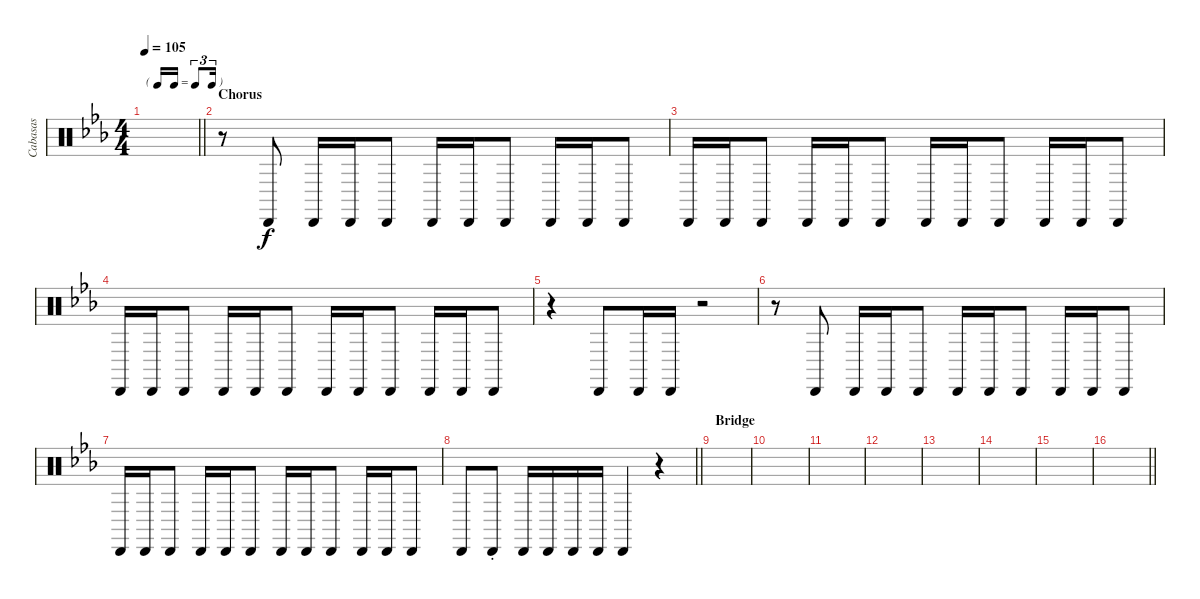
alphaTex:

\track ("Cabasas" "Cabasas") {instrument percussion}
\staff {score}
\articulation defaults
\ts (4 4)
\tf triplet16th
\tempo 105
\clef neutral
\barLineRight lightlight
\ks eb
|
\section ("" "Chorus")
r.8 "Cabasa (hit)".8 "Cabasa (hit)".16 "Cabasa (hit)".16 "Cabasa (hit)".8 "Cabasa (hit)".16 "Cabasa (hit)".16 "Cabasa (hit)".8 "Cabasa (hit)".16 "Cabasa (hit)".16 "Cabasa (hit)".8 |
"Cabasa (hit)".16 "Cabasa (hit)".16 "Cabasa (hit)".8 "Cabasa (hit)".16 "Cabasa (hit)".16 "Cabasa (hit)".8 "Cabasa (hit)".16 "Cabasa (hit)".16 "Cabasa (hit)".8 "Cabasa (hit)".16 "Cabasa (hit)".16 "Cabasa (hit)".8 |
"Cabasa (hit)".16 "Cabasa (hit)".16 "Cabasa (hit)".8 "Cabasa (hit)".16 "Cabasa (hit)".16 "Cabasa (hit)".8 "Cabasa (hit)".16 "Cabasa (hit)".16 "Cabasa (hit)".8 "Cabasa (hit)".16 "Cabasa (hit)".16 "Cabasa (hit)".8 |
r.4 "Cabasa (hit)".8 "Cabasa (hit)".16 "Cabasa (hit)".16 r.2 |
r.8 "Cabasa (hit)".8 "Cabasa (hit)".16 "Cabasa (hit)".16 "Cabasa (hit)".8 "Cabasa (hit)".16 "Cabasa (hit)".16 "Cabasa (hit)".8 "Cabasa (hit)".16 "Cabasa (hit)".16 "Cabasa (hit)".8 |
"Cabasa (hit)".16 "Cabasa (hit)".16 "Cabasa (hit)".8 "Cabasa (hit)".16 "Cabasa (hit)".16 "Cabasa (hit)".8 "Cabasa (hit)".16 "Cabasa (hit)".16 "Cabasa (hit)".8 "Cabasa (hit)".16 "Cabasa (hit)".16 "Cabasa (hit)".8 |
\barLineRight lightlight "Cabasa (hit)".8 "Cabasa (hit)"{st}.8 "Cabasa (hit)".16 "Cabasa (hit)".16 "Cabasa (hit)".16 "Cabasa (hit)".16 "Cabasa (hit)".4
r.4 |
\section ("" "Bridge")
|
|
|
|
|
|
|
\barLineRight lightlight
